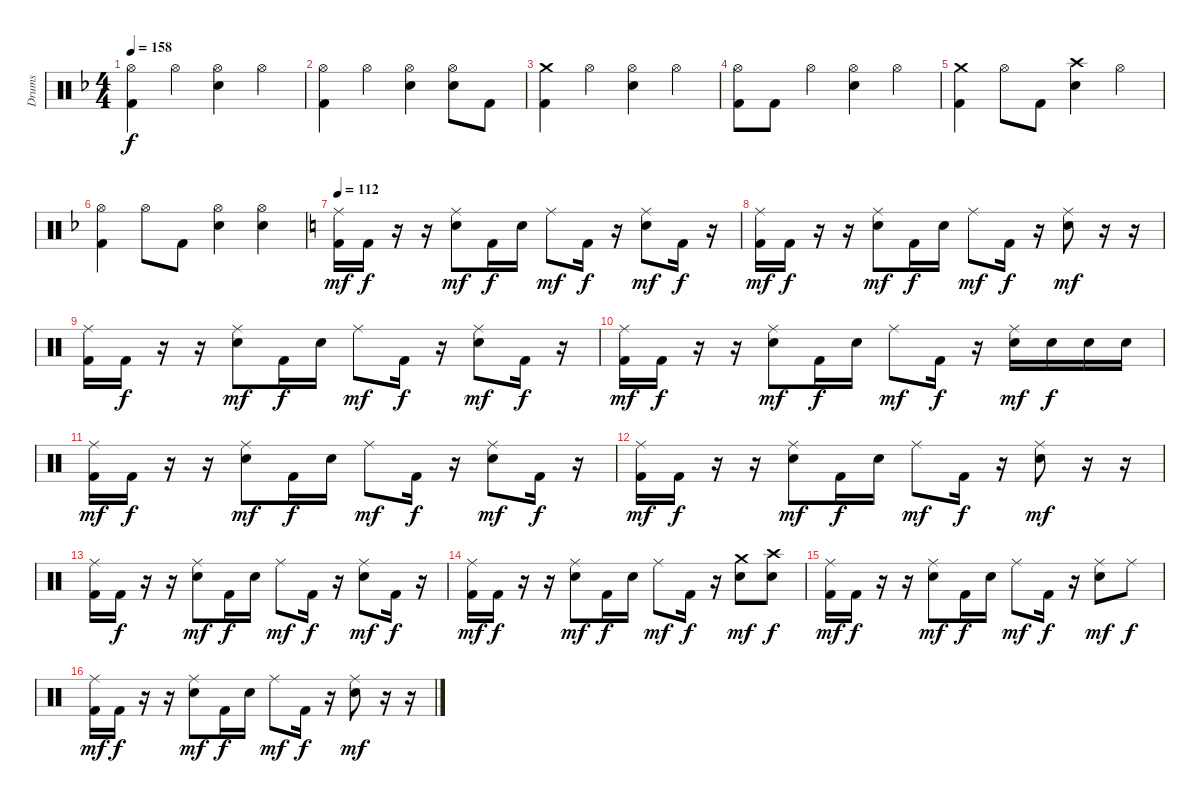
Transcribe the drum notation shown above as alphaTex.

\track ("Drums" "Drums") {instrument percussion}
\staff {score}
\articulation defaults
\ts (4 4)
\tempo 158
\clef neutral
\ks f
("Hi-Hat (open)" "Kick (hit) 2").4{dy f} "Hi-Hat (open)".4 ("Hi-Hat (open)" "Snare (hit) 2").4 "Hi-Hat (open)".4 |
("Hi-Hat (open)" "Kick (hit) 2").4 "Hi-Hat (open)".4 ("Hi-Hat (open)" "Snare (hit) 2").4 ("Hi-Hat (open)" "Snare (hit) 2").8 "Kick (hit) 2".8 |
("Crash medium (hit)" "Kick (hit) 2").4 "Hi-Hat (open)".4 ("Hi-Hat (open)" "Snare (hit) 2").4 "Hi-Hat (open)".4 |
("Hi-Hat (open)" "Kick (hit) 2").8 "Kick (hit) 2".8 "Hi-Hat (open)".4 ("Hi-Hat (open)" "Snare (hit) 2").4 "Hi-Hat (open)".4 |
("Crash medium (hit)" "Kick (hit) 2").4 "Hi-Hat (open)".8 "Kick (hit) 2".8 ("Crash high (hit)" "Snare (hit) 2").4 "Hi-Hat (open)".4 |
("Hi-Hat (open)" "Kick (hit) 2").4 "Hi-Hat (open)".8 "Kick (hit) 2".8 ("Hi-Hat (open)" "Snare (hit) 2").4 ("Hi-Hat (open)" "Snare (hit) 2").4 |
\tempo 112
\ks c
("Ride (middle)" "Kick (hit) 2").16{dy mf} "Kick (hit) 2".16{dy f} r.16 r.16 ("Ride (middle)" "Electric Snare (hit)").8{dy mf} "Kick (hit) 2".16{dy f} "Electric Snare (hit)".16 "Ride (middle)".8{dy mf} "Kick (hit) 2".16{dy f} r.16 ("Ride (middle)" "Electric Snare (hit)").8{dy mf} "Kick (hit) 2".16{dy f} r.16 |
("Ride (middle)" "Kick (hit) 2").16{dy mf} "Kick (hit) 2".16{dy f} r.16 r.16 ("Ride (middle)" "Electric Snare (hit)").8{dy mf} "Kick (hit) 2".16{dy f} "Electric Snare (hit)".16 "Ride (middle)".8{dy mf} "Kick (hit) 2".16{dy f} r.16 ("Ride (middle)" "Electric Snare (hit)").8{dy mf} r.16 r.16 |
("Ride (middle)" "Kick (hit) 2").16 "Kick (hit) 2".16{dy f} r.16 r.16 ("Ride (middle)" "Electric Snare (hit)").8{dy mf} "Kick (hit) 2".16{dy f} "Electric Snare (hit)".16 "Ride (middle)".8{dy mf} "Kick (hit) 2".16{dy f} r.16 ("Ride (middle)" "Electric Snare (hit)").8{dy mf} "Kick (hit) 2".16{dy f} r.16 |
("Ride (middle)" "Kick (hit) 2").16{dy mf} "Kick (hit) 2".16{dy f} r.16 r.16 ("Ride (middle)" "Electric Snare (hit)").8{dy mf} "Kick (hit) 2".16{dy f} "Electric Snare (hit)".16 "Ride (middle)".8{dy mf} "Kick (hit) 2".16{dy f} r.16 ("Ride (middle)" "Electric Snare (hit)").16{dy mf} "Electric Snare (hit)".16{dy f} "Electric Snare (hit)".16 "Electric Snare (hit)".16 |
("Ride (middle)" "Kick (hit) 2").16{dy mf} "Kick (hit) 2".16{dy f} r.16 r.16 ("Ride (middle)" "Electric Snare (hit)").8{dy mf} "Kick (hit) 2".16{dy f} "Electric Snare (hit)".16 "Ride (middle)".8{dy mf} "Kick (hit) 2".16{dy f} r.16 ("Ride (middle)" "Electric Snare (hit)").8{dy mf} "Kick (hit) 2".16{dy f} r.16 |
("Ride (middle)" "Kick (hit) 2").16{dy mf} "Kick (hit) 2".16{dy f} r.16 r.16 ("Ride (middle)" "Electric Snare (hit)").8{dy mf} "Kick (hit) 2".16{dy f} "Electric Snare (hit)".16 "Ride (middle)".8{dy mf} "Kick (hit) 2".16{dy f} r.16 ("Ride (middle)" "Electric Snare (hit)").8{dy mf} r.16 r.16 |
("Ride (middle)" "Kick (hit) 2").16 "Kick (hit) 2".16{dy f} r.16 r.16 ("Ride (middle)" "Electric Snare (hit)").8{dy mf} "Kick (hit) 2".16{dy f} "Electric Snare (hit)".16 "Ride (middle)".8{dy mf} "Kick (hit) 2".16{dy f} r.16 ("Ride (middle)" "Electric Snare (hit)").8{dy mf} "Kick (hit) 2".16{dy f} r.16 |
("Ride (middle)" "Kick (hit) 2").16{dy mf} "Kick (hit) 2".16{dy f} r.16 r.16 ("Ride (middle)" "Electric Snare (hit)").8{dy mf} "Kick (hit) 2".16{dy f} "Electric Snare (hit)".16 "Ride (middle)".8{dy mf} "Kick (hit) 2".16{dy f} r.16 ("Crash medium (hit)" "Electric Snare (hit)").8{dy mf} ("Crash high (hit)" "Electric Snare (hit)").8{dy f} |
("Ride (middle)" "Kick (hit) 2").16{dy mf} "Kick (hit) 2".16{dy f} r.16 r.16 ("Ride (middle)" "Electric Snare (hit)").8{dy mf} "Kick (hit) 2".16{dy f} "Electric Snare (hit)".16 "Ride (middle)".8{dy mf} "Kick (hit) 2".16{dy f} r.16 ("Ride (middle)" "Electric Snare (hit)").8{dy mf} "Ride (middle)".8{dy f} |
("Ride (middle)" "Kick (hit) 2").16{dy mf} "Kick (hit) 2".16{dy f} r.16 r.16 ("Ride (middle)" "Electric Snare (hit)").8{dy mf} "Kick (hit) 2".16{dy f} "Electric Snare (hit)".16 "Ride (middle)".8{dy mf} "Kick (hit) 2".16{dy f} r.16 ("Ride (middle)" "Electric Snare (hit)").8{dy mf} r.16 r.16
